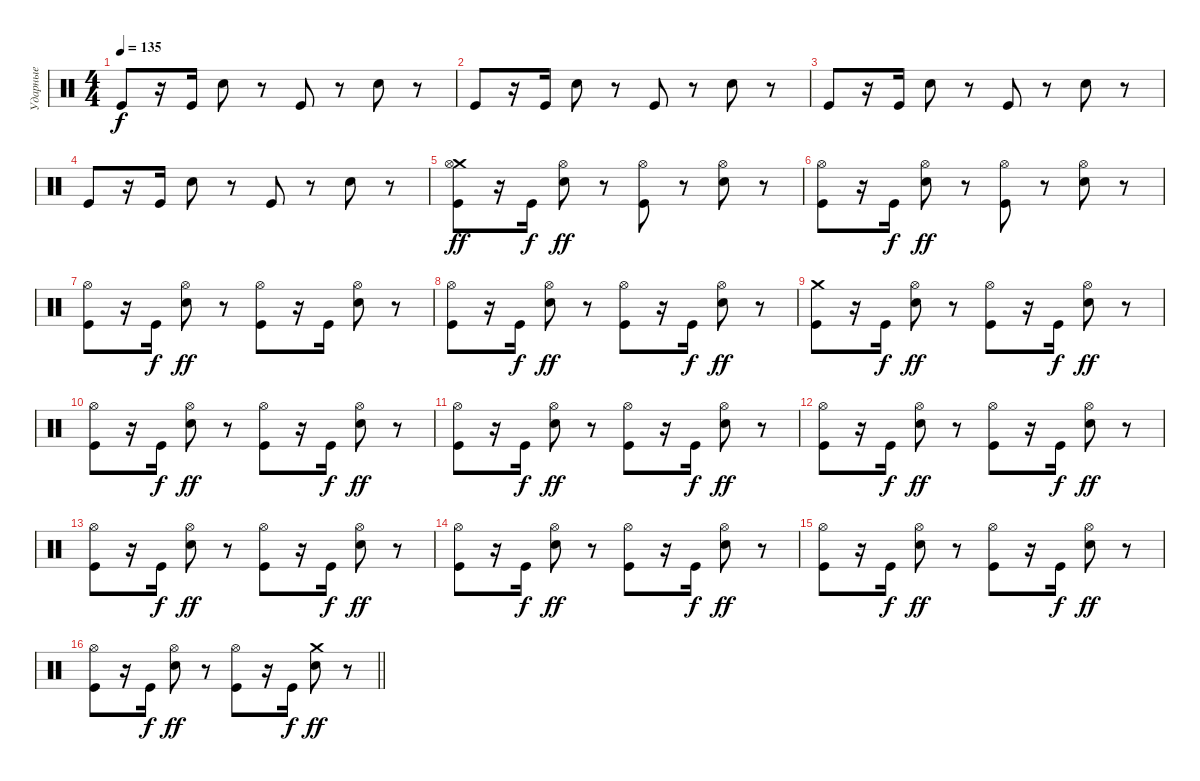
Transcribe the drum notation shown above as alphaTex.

\track ("Ударные" "Ударные") {instrument percussion}
\staff {score}
\articulation defaults
\ts (4 4)
\tempo 135
\clef neutral
\ks c "Kick (hit)".8{dy f}
r.16 "Kick (hit)".16 "Electric Snare (hit)".8 r.8 "Kick (hit)".8 r.8 "Electric Snare (hit)".8 r.8 |
"Kick (hit)".8 r.16 "Kick (hit)".16 "Electric Snare (hit)".8 r.8 "Kick (hit)".8 r.8 "Electric Snare (hit)".8 r.8 |
"Kick (hit)".8 r.16 "Kick (hit)".16 "Electric Snare (hit)".8 r.8 "Kick (hit)".8 r.8 "Electric Snare (hit)".8 r.8 |
"Kick (hit)".8 r.16 "Kick (hit)".16 "Electric Snare (hit)".8 r.8 "Kick (hit)".8 r.8 "Electric Snare (hit)".8 r.8 |
("Crash medium (hit)" "Kick (hit)" "Hi-Hat (open)").8{dy ff} r.16 "Kick (hit)".16{dy f} ("Electric Snare (hit)" "Hi-Hat (open)").8{dy ff} r.8 ("Kick (hit)" "Hi-Hat (open)").8 r.8 ("Electric Snare (hit)" "Hi-Hat (open)").8 r.8 |
("Kick (hit)" "Hi-Hat (open)").8 r.16 "Kick (hit)".16{dy f} ("Electric Snare (hit)" "Hi-Hat (open)").8{dy ff} r.8 ("Kick (hit)" "Hi-Hat (open)").8 r.8 ("Electric Snare (hit)" "Hi-Hat (open)").8 r.8 |
("Kick (hit)" "Hi-Hat (open)").8 r.16 "Kick (hit)".16{dy f} ("Electric Snare (hit)" "Hi-Hat (open)").8{dy ff} r.8 ("Kick (hit)" "Hi-Hat (open)").8 r.16 "Kick (hit)".16 ("Electric Snare (hit)" "Hi-Hat (open)").8 r.8 |
("Kick (hit)" "Hi-Hat (open)").8 r.16 "Kick (hit)".16{dy f} ("Electric Snare (hit)" "Hi-Hat (open)").8{dy ff} r.8 ("Kick (hit)" "Hi-Hat (open)").8 r.16 "Kick (hit)".16{dy f} ("Electric Snare (hit)" "Hi-Hat (open)").8{dy ff} r.8 |
("Kick (hit)" "Crash medium (hit)").8 r.16 "Kick (hit)".16{dy f} ("Electric Snare (hit)" "Hi-Hat (open)").8{dy ff} r.8 ("Kick (hit)" "Hi-Hat (open)").8 r.16 "Kick (hit)".16{dy f} ("Electric Snare (hit)" "Hi-Hat (open)").8{dy ff} r.8 |
("Kick (hit)" "Hi-Hat (open)").8 r.16 "Kick (hit)".16{dy f} ("Electric Snare (hit)" "Hi-Hat (open)").8{dy ff} r.8 ("Kick (hit)" "Hi-Hat (open)").8 r.16 "Kick (hit)".16{dy f} ("Electric Snare (hit)" "Hi-Hat (open)").8{dy ff} r.8 |
("Kick (hit)" "Hi-Hat (open)").8 r.16 "Kick (hit)".16{dy f} ("Electric Snare (hit)" "Hi-Hat (open)").8{dy ff} r.8 ("Kick (hit)" "Hi-Hat (open)").8 r.16 "Kick (hit)".16{dy f} ("Electric Snare (hit)" "Hi-Hat (open)").8{dy ff} r.8 |
("Kick (hit)" "Hi-Hat (open)").8 r.16 "Kick (hit)".16{dy f} ("Electric Snare (hit)" "Hi-Hat (open)").8{dy ff} r.8 ("Kick (hit)" "Hi-Hat (open)").8 r.16 "Kick (hit)".16{dy f} ("Electric Snare (hit)" "Hi-Hat (open)").8{dy ff} r.8 |
("Kick (hit)" "Hi-Hat (open)").8 r.16 "Kick (hit)".16{dy f} ("Electric Snare (hit)" "Hi-Hat (open)").8{dy ff} r.8 ("Kick (hit)" "Hi-Hat (open)").8 r.16 "Kick (hit)".16{dy f} ("Electric Snare (hit)" "Hi-Hat (open)").8{dy ff} r.8 |
("Kick (hit)" "Hi-Hat (open)").8 r.16 "Kick (hit)".16{dy f} ("Electric Snare (hit)" "Hi-Hat (open)").8{dy ff} r.8 ("Kick (hit)" "Hi-Hat (open)").8 r.16 "Kick (hit)".16{dy f} ("Electric Snare (hit)" "Hi-Hat (open)").8{dy ff} r.8 |
("Kick (hit)" "Hi-Hat (open)").8 r.16 "Kick (hit)".16{dy f} ("Electric Snare (hit)" "Hi-Hat (open)").8{dy ff} r.8 ("Kick (hit)" "Hi-Hat (open)").8 r.16 "Kick (hit)".16{dy f} ("Electric Snare (hit)" "Hi-Hat (open)").8{dy ff} r.8 |
\barLineRight lightlight
("Kick (hit)" "Hi-Hat (open)").8 r.16 "Kick (hit)".16{dy f} ("Electric Snare (hit)" "Hi-Hat (open)").8{dy ff} r.8 ("Kick (hit)" "Hi-Hat (open)").8 r.16 "Kick (hit)".16{dy f} ("Electric Snare (hit)" "Crash medium (hit)").8{dy ff} r.8
